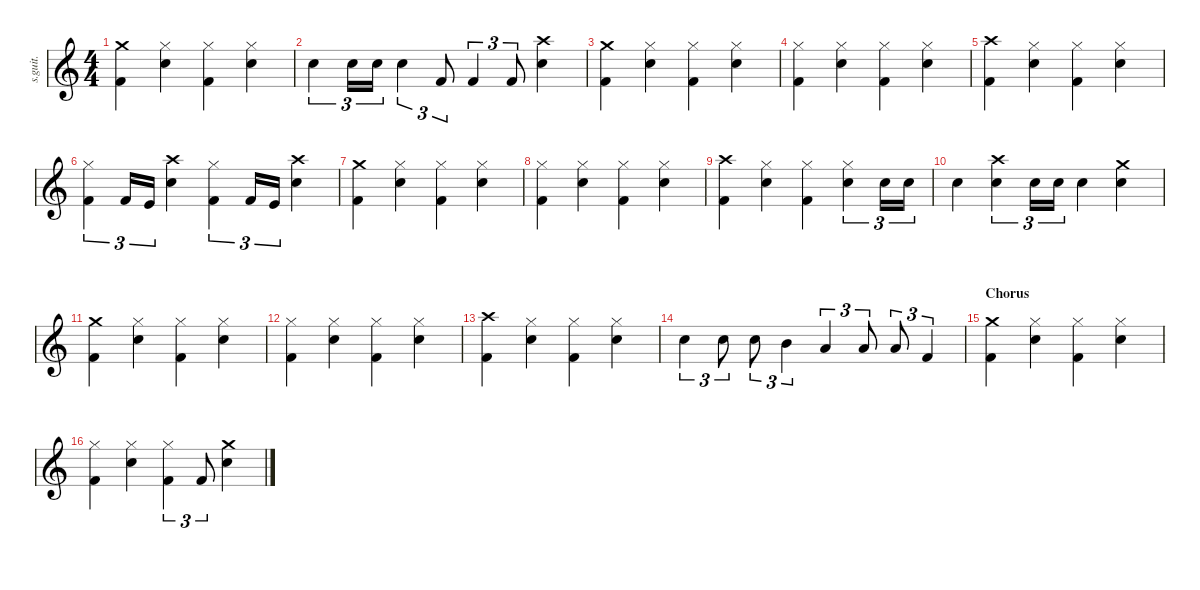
\defaultSystemsLayout 4
\hideDynamics
\bracketExtendMode nobrackets
\track ("Lars Ulrich (Drums)" "s.guit.") {instrument percussion}
\staff {score}
\articulation defaults
\ts (4 4)
\tempo (118 hide)
\clef g2
\ks c
("Crash medium (hit)" "Kick (hit) 2").4{lyrics (0 "") lyrics (1 "") lyrics (2 "") lyrics (3 "") lyrics (4 "") dy f} ("Hi-Hat (closed)" "Snare (hit) 2").4{lyrics (0 "") lyrics (1 "") lyrics (2 "") lyrics (3 "") lyrics (4 "")} ("Hi-Hat (closed)" "Kick (hit) 2").4{lyrics (0 "") lyrics (1 "") lyrics (2 "") lyrics (3 "") lyrics (4 "")} ("Hi-Hat (closed)" "Snare (hit) 2").4{lyrics (0 "") lyrics (1 "") lyrics (2 "") lyrics (3 "") lyrics (4 "")} |
"Snare (hit) 2".4{tu (3 2) lyrics (0 "") lyrics (1 "") lyrics (2 "") lyrics (3 "") lyrics (4 "")} "Snare (hit) 2".16{tu (3 2) lyrics (0 "") lyrics (1 "") lyrics (2 "") lyrics (3 "") lyrics (4 "")} "Snare (hit) 2".16{tu (3 2) lyrics (0 "") lyrics (1 "") lyrics (2 "") lyrics (3 "") lyrics (4 "") dy mf} "Snare (hit) 2".4{tu (3 2) lyrics (0 "") lyrics (1 "") lyrics (2 "") lyrics (3 "") lyrics (4 "") dy f} "Kick (hit) 2".8{tu (3 2) lyrics (0 "") lyrics (1 "") lyrics (2 "") lyrics (3 "") lyrics (4 "")} "Kick (hit) 2".4{tu (3 2) lyrics (0 "") lyrics (1 "") lyrics (2 "") lyrics (3 "") lyrics (4 "")} "Kick (hit) 2".8{tu (3 2) lyrics (0 "") lyrics (1 "") lyrics (2 "") lyrics (3 "") lyrics (4 "")} ("Crash high (hit)" "Snare (hit) 2").4{lyrics (0 "") lyrics (1 "") lyrics (2 "") lyrics (3 "") lyrics (4 "")} |
("Crash medium (hit)" "Kick (hit) 2").4{lyrics (0 "") lyrics (1 "") lyrics (2 "") lyrics (3 "") lyrics (4 "")} ("Hi-Hat (closed)" "Snare (hit) 2").4{lyrics (0 "") lyrics (1 "") lyrics (2 "") lyrics (3 "") lyrics (4 "")} ("Hi-Hat (closed)" "Kick (hit) 2").4{lyrics (0 "") lyrics (1 "") lyrics (2 "") lyrics (3 "") lyrics (4 "")} ("Hi-Hat (closed)" "Snare (hit) 2").4{lyrics (0 "") lyrics (1 "") lyrics (2 "") lyrics (3 "") lyrics (4 "")} |
("Hi-Hat (closed)" "Kick (hit) 2").4{lyrics (0 "") lyrics (1 "") lyrics (2 "") lyrics (3 "") lyrics (4 "")} ("Hi-Hat (closed)" "Snare (hit) 2").4{lyrics (0 "") lyrics (1 "") lyrics (2 "") lyrics (3 "") lyrics (4 "")} ("Hi-Hat (closed)" "Kick (hit) 2").4{lyrics (0 "") lyrics (1 "") lyrics (2 "") lyrics (3 "") lyrics (4 "")} ("Hi-Hat (closed)" "Snare (hit) 2").4{lyrics (0 "") lyrics (1 "") lyrics (2 "") lyrics (3 "") lyrics (4 "")} |
("Crash high (hit)" "Kick (hit) 2").4{lyrics (0 "") lyrics (1 "") lyrics (2 "") lyrics (3 "") lyrics (4 "")} ("Hi-Hat (closed)" "Snare (hit) 2").4{lyrics (0 "") lyrics (1 "") lyrics (2 "") lyrics (3 "") lyrics (4 "")} ("Hi-Hat (closed)" "Kick (hit) 2").4{lyrics (0 "") lyrics (1 "") lyrics (2 "") lyrics (3 "") lyrics (4 "")} ("Hi-Hat (closed)" "Snare (hit) 2").4{lyrics (0 "") lyrics (1 "") lyrics (2 "") lyrics (3 "") lyrics (4 "")} |
("Hi-Hat (closed)" "Kick (hit) 2").4{tu (3 2) lyrics (0 "") lyrics (1 "") lyrics (2 "") lyrics (3 "") lyrics (4 "")} "Kick (hit) 2".16{tu (3 2) lyrics (0 "") lyrics (1 "") lyrics (2 "") lyrics (3 "") lyrics (4 "")} "Kick (hit)".16{tu (3 2) lyrics (0 "") lyrics (1 "") lyrics (2 "") lyrics (3 "") lyrics (4 "")} ("Crash high (hit)" "Snare (hit) 2").4{lyrics (0 "") lyrics (1 "") lyrics (2 "") lyrics (3 "") lyrics (4 "")} ("Hi-Hat (closed)" "Kick (hit) 2").4{tu (3 2) lyrics (0 "") lyrics (1 "") lyrics (2 "") lyrics (3 "") lyrics (4 "")} "Kick (hit) 2".16{tu (3 2) lyrics (0 "") lyrics (1 "") lyrics (2 "") lyrics (3 "") lyrics (4 "")} "Kick (hit)".16{tu (3 2) lyrics (0 "") lyrics (1 "") lyrics (2 "") lyrics (3 "") lyrics (4 "")} ("Crash high (hit)" "Snare (hit) 2").4{lyrics (0 "") lyrics (1 "") lyrics (2 "") lyrics (3 "") lyrics (4 "")} |
("Crash medium (hit)" "Kick (hit) 2").4{lyrics (0 "") lyrics (1 "") lyrics (2 "") lyrics (3 "") lyrics (4 "")} ("Hi-Hat (closed)" "Snare (hit) 2").4{lyrics (0 "") lyrics (1 "") lyrics (2 "") lyrics (3 "") lyrics (4 "")} ("Hi-Hat (closed)" "Kick (hit) 2").4{lyrics (0 "") lyrics (1 "") lyrics (2 "") lyrics (3 "") lyrics (4 "")} ("Hi-Hat (closed)" "Snare (hit) 2").4{lyrics (0 "") lyrics (1 "") lyrics (2 "") lyrics (3 "") lyrics (4 "")} |
("Hi-Hat (closed)" "Kick (hit) 2").4{lyrics (0 "") lyrics (1 "") lyrics (2 "") lyrics (3 "") lyrics (4 "")} ("Hi-Hat (closed)" "Snare (hit) 2").4{lyrics (0 "") lyrics (1 "") lyrics (2 "") lyrics (3 "") lyrics (4 "")} ("Hi-Hat (closed)" "Kick (hit) 2").4{lyrics (0 "") lyrics (1 "") lyrics (2 "") lyrics (3 "") lyrics (4 "")} ("Hi-Hat (closed)" "Snare (hit) 2").4{lyrics (0 "") lyrics (1 "") lyrics (2 "") lyrics (3 "") lyrics (4 "")} |
("Crash high (hit)" "Kick (hit) 2").4{lyrics (0 "") lyrics (1 "") lyrics (2 "") lyrics (3 "") lyrics (4 "")} ("Hi-Hat (closed)" "Snare (hit) 2").4{lyrics (0 "") lyrics (1 "") lyrics (2 "") lyrics (3 "") lyrics (4 "")} ("Hi-Hat (closed)" "Kick (hit) 2").4{lyrics (0 "") lyrics (1 "") lyrics (2 "") lyrics (3 "") lyrics (4 "")} ("Hi-Hat (closed)" "Snare (hit) 2").4{tu (3 2) lyrics (0 "") lyrics (1 "") lyrics (2 "") lyrics (3 "") lyrics (4 "")} "Snare (hit) 2".16{tu (3 2) lyrics (0 "") lyrics (1 "") lyrics (2 "") lyrics (3 "") lyrics (4 "")} "Snare (hit) 2".16{tu (3 2) lyrics (0 "") lyrics (1 "") lyrics (2 "") lyrics (3 "") lyrics (4 "")} |
"Snare (hit) 2".4{lyrics (0 "") lyrics (1 "") lyrics (2 "") lyrics (3 "") lyrics (4 "")} ("Crash high (hit)" "Snare (hit) 2").4{tu (3 2) lyrics (0 "") lyrics (1 "") lyrics (2 "") lyrics (3 "") lyrics (4 "")} "Snare (hit) 2".16{tu (3 2) lyrics (0 "") lyrics (1 "") lyrics (2 "") lyrics (3 "") lyrics (4 "")} "Snare (hit) 2".16{tu (3 2) lyrics (0 "") lyrics (1 "") lyrics (2 "") lyrics (3 "") lyrics (4 "")} "Snare (hit) 2".4{lyrics (0 "") lyrics (1 "") lyrics (2 "") lyrics (3 "") lyrics (4 "")} ("Crash medium (hit)" "Snare (hit) 2").4{lyrics (0 "") lyrics (1 "") lyrics (2 "") lyrics (3 "") lyrics (4 "")} |
("Crash medium (hit)" "Kick (hit) 2").4{lyrics (0 "") lyrics (1 "") lyrics (2 "") lyrics (3 "") lyrics (4 "")} ("Hi-Hat (closed)" "Snare (hit) 2").4{lyrics (0 "") lyrics (1 "") lyrics (2 "") lyrics (3 "") lyrics (4 "")} ("Hi-Hat (closed)" "Kick (hit) 2").4{lyrics (0 "") lyrics (1 "") lyrics (2 "") lyrics (3 "") lyrics (4 "")} ("Hi-Hat (closed)" "Snare (hit) 2").4{lyrics (0 "") lyrics (1 "") lyrics (2 "") lyrics (3 "") lyrics (4 "")} |
("Hi-Hat (closed)" "Kick (hit) 2").4{lyrics (0 "") lyrics (1 "") lyrics (2 "") lyrics (3 "") lyrics (4 "")} ("Hi-Hat (closed)" "Snare (hit) 2").4{lyrics (0 "") lyrics (1 "") lyrics (2 "") lyrics (3 "") lyrics (4 "")} ("Hi-Hat (closed)" "Kick (hit) 2").4{lyrics (0 "") lyrics (1 "") lyrics (2 "") lyrics (3 "") lyrics (4 "")} ("Hi-Hat (closed)" "Snare (hit) 2").4{lyrics (0 "") lyrics (1 "") lyrics (2 "") lyrics (3 "") lyrics (4 "")} |
("Crash high (hit)" "Kick (hit) 2").4{lyrics (0 "") lyrics (1 "") lyrics (2 "") lyrics (3 "") lyrics (4 "")} ("Hi-Hat (closed)" "Snare (hit) 2").4{lyrics (0 "") lyrics (1 "") lyrics (2 "") lyrics (3 "") lyrics (4 "")} ("Hi-Hat (closed)" "Kick (hit) 2").4{lyrics (0 "") lyrics (1 "") lyrics (2 "") lyrics (3 "") lyrics (4 "")} ("Hi-Hat (closed)" "Snare (hit) 2").4{lyrics (0 "") lyrics (1 "") lyrics (2 "") lyrics (3 "") lyrics (4 "")} |
"Snare (hit) 2".4{tu (3 2) lyrics (0 "") lyrics (1 "") lyrics (2 "") lyrics (3 "") lyrics (4 "")} "Snare (hit) 2".8{tu (3 2) lyrics (0 "") lyrics (1 "") lyrics (2 "") lyrics (3 "") lyrics (4 "")} "Snare (hit) 2".8{tu (3 2) lyrics (0 "") lyrics (1 "") lyrics (2 "") lyrics (3 "") lyrics (4 "")} "Mid Tom (hit)".4{tu (3 2) lyrics (0 "") lyrics (1 "") lyrics (2 "") lyrics (3 "") lyrics (4 "")} "Low Tom (hit)".4{tu (3 2) lyrics (0 "") lyrics (1 "") lyrics (2 "") lyrics (3 "") lyrics (4 "")} "Low Tom (hit)".8{tu (3 2) lyrics (0 "") lyrics (1 "") lyrics (2 "") lyrics (3 "") lyrics (4 "")} "Low Tom (hit)".8{tu (3 2) lyrics (0 "") lyrics (1 "") lyrics (2 "") lyrics (3 "") lyrics (4 "")} "Kick (hit) 2".4{tu (3 2) lyrics (0 "") lyrics (1 "") lyrics (2 "") lyrics (3 "") lyrics (4 "")} |
\section ("" "Chorus")
("Crash medium (hit)" "Kick (hit) 2").4{lyrics (0 "") lyrics (1 "") lyrics (2 "") lyrics (3 "") lyrics (4 "")} ("Hi-Hat (closed)" "Snare (hit) 2").4{lyrics (0 "") lyrics (1 "") lyrics (2 "") lyrics (3 "") lyrics (4 "")} ("Hi-Hat (closed)" "Kick (hit) 2").4{lyrics (0 "") lyrics (1 "") lyrics (2 "") lyrics (3 "") lyrics (4 "")} ("Hi-Hat (closed)" "Snare (hit) 2").4{lyrics (0 "") lyrics (1 "") lyrics (2 "") lyrics (3 "") lyrics (4 "")} |
("Hi-Hat (closed)" "Kick (hit) 2").4{lyrics (0 "") lyrics (1 "") lyrics (2 "") lyrics (3 "") lyrics (4 "")} ("Hi-Hat (closed)" "Snare (hit) 2").4{lyrics (0 "") lyrics (1 "") lyrics (2 "") lyrics (3 "") lyrics (4 "")} ("Hi-Hat (closed)" "Kick (hit) 2").4{tu (3 2) lyrics (0 "") lyrics (1 "") lyrics (2 "") lyrics (3 "") lyrics (4 "")} "Kick (hit) 2".8{tu (3 2) lyrics (0 "") lyrics (1 "") lyrics (2 "") lyrics (3 "") lyrics (4 "")} ("Crash medium (hit)" "Snare (hit) 2").4{lyrics (0 "") lyrics (1 "") lyrics (2 "") lyrics (3 "") lyrics (4 "")}
